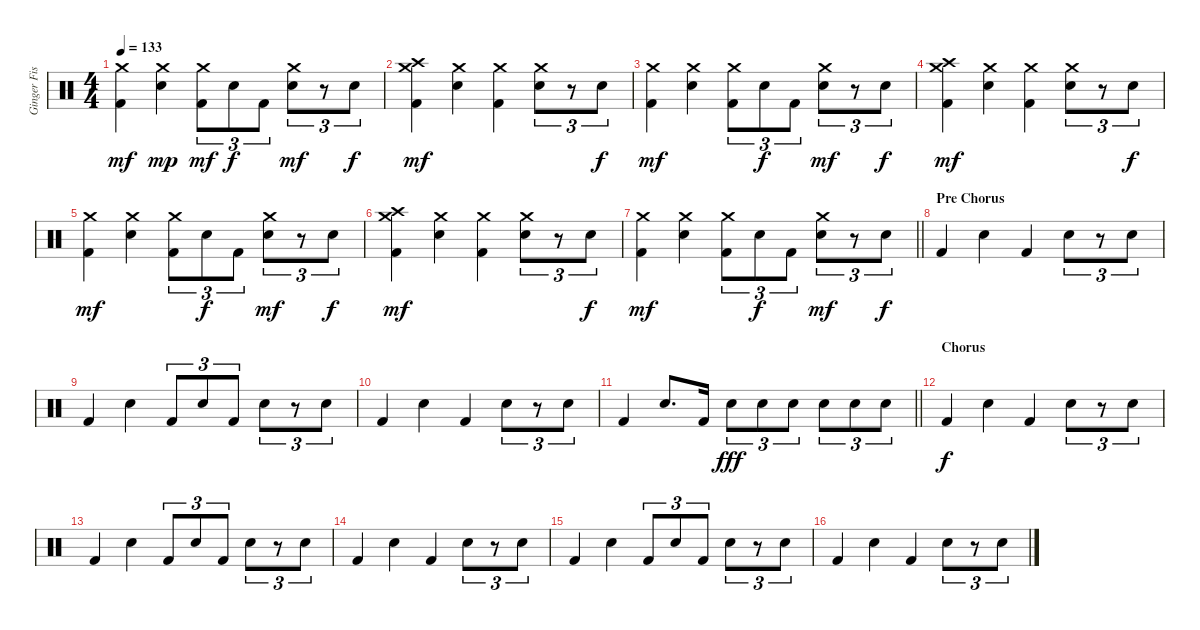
\track ("Ginger Fish (Drums)" "Ginger Fis") {instrument percussion}
\staff {score}
\articulation defaults
\ts (4 4)
\tempo 133
\clef neutral
\ks c
("Crash medium (hit)" "Kick (hit) 2").4{dy mf} ("Crash medium (hit)" "Snare (hit) 2").4{dy mp} ("Crash medium (hit)" "Kick (hit) 2").8{tu (3 2) dy mf} "Snare (hit) 2".8{tu (3 2) dy f} "Kick (hit) 2".8{tu (3 2)} ("Crash medium (hit)" "Snare (hit) 2").8{tu (3 2) dy mf} r.8{tu (3 2)} "Snare (hit) 2".8{tu (3 2) dy f} |
("Crash high (hit)" "Crash medium (hit)" "Kick (hit) 2").4{dy mf} ("Crash medium (hit)" "Snare (hit) 2").4 ("Crash medium (hit)" "Kick (hit) 2").4 ("Crash medium (hit)" "Snare (hit) 2").8{tu (3 2)} r.8{tu (3 2)} "Snare (hit) 2".8{tu (3 2) dy f} |
("Crash medium (hit)" "Kick (hit) 2").4{dy mf} ("Crash medium (hit)" "Snare (hit) 2").4 ("Crash medium (hit)" "Kick (hit) 2").8{tu (3 2)} "Snare (hit) 2".8{tu (3 2) dy f} "Kick (hit) 2".8{tu (3 2)} ("Crash medium (hit)" "Snare (hit) 2").8{tu (3 2) dy mf} r.8{tu (3 2)} "Snare (hit) 2".8{tu (3 2) dy f} |
("Crash high (hit)" "Crash medium (hit)" "Kick (hit) 2").4{dy mf} ("Crash medium (hit)" "Snare (hit) 2").4 ("Crash medium (hit)" "Kick (hit) 2").4 ("Crash medium (hit)" "Snare (hit) 2").8{tu (3 2)} r.8{tu (3 2)} "Snare (hit) 2".8{tu (3 2) dy f} |
("Crash medium (hit)" "Kick (hit) 2").4{dy mf} ("Crash medium (hit)" "Snare (hit) 2").4 ("Crash medium (hit)" "Kick (hit) 2").8{tu (3 2)} "Snare (hit) 2".8{tu (3 2) dy f} "Kick (hit) 2".8{tu (3 2)} ("Crash medium (hit)" "Snare (hit) 2").8{tu (3 2) dy mf} r.8{tu (3 2)} "Snare (hit) 2".8{tu (3 2) dy f} |
("Crash high (hit)" "Crash medium (hit)" "Kick (hit) 2").4{dy mf} ("Crash medium (hit)" "Snare (hit) 2").4 ("Crash medium (hit)" "Kick (hit) 2").4 ("Crash medium (hit)" "Snare (hit) 2").8{tu (3 2)} r.8{tu (3 2)} "Snare (hit) 2".8{tu (3 2) dy f} |
\barLineRight lightlight
("Crash medium (hit)" "Kick (hit) 2").4{dy mf} ("Crash medium (hit)" "Snare (hit) 2").4 ("Crash medium (hit)" "Kick (hit) 2").8{tu (3 2)} "Snare (hit) 2".8{tu (3 2) dy f} "Kick (hit) 2".8{tu (3 2)} ("Crash medium (hit)" "Snare (hit) 2").8{tu (3 2) dy mf} r.8{tu (3 2)} "Snare (hit) 2".8{tu (3 2) dy f} |
\section ("" "Pre Chorus")
"Kick (hit) 2".4 "Snare (hit) 2".4 "Kick (hit) 2".4 "Snare (hit) 2".8{tu (3 2)} r.8{tu (3 2)} "Snare (hit) 2".8{tu (3 2)} |
"Kick (hit) 2".4 "Snare (hit) 2".4 "Kick (hit) 2".8{tu (3 2)} "Snare (hit) 2".8{tu (3 2)} "Kick (hit) 2".8{tu (3 2)} "Snare (hit) 2".8{tu (3 2)} r.8{tu (3 2)} "Snare (hit) 2".8{tu (3 2)} |
"Kick (hit) 2".4 "Snare (hit) 2".4 "Kick (hit) 2".4 "Snare (hit) 2".8{tu (3 2)} r.8{tu (3 2)} "Snare (hit) 2".8{tu (3 2)} |
\barLineRight lightlight "Kick (hit) 2".4 "Snare (hit) 2".8{d} "Kick (hit) 2".16 "Snare (hit) 2".8{tu (3 2) dy fff} "Snare (hit) 2".8{tu (3 2)} "Snare (hit) 2".8{tu (3 2)} "Snare (hit) 2".8{tu (3 2)} "Snare (hit) 2".8{tu (3 2)} "Snare (hit) 2".8{tu (3 2)}
|
\section ("" "Chorus")
"Kick (hit) 2".4{dy f} "Snare (hit) 2".4 "Kick (hit) 2".4 "Snare (hit) 2".8{tu (3 2)} r.8{tu (3 2)} "Snare (hit) 2".8{tu (3 2)} |
"Kick (hit) 2".4 "Snare (hit) 2".4 "Kick (hit) 2".8{tu (3 2)} "Snare (hit) 2".8{tu (3 2)} "Kick (hit) 2".8{tu (3 2)} "Snare (hit) 2".8{tu (3 2)} r.8{tu (3 2)} "Snare (hit) 2".8{tu (3 2)} |
"Kick (hit) 2".4 "Snare (hit) 2".4 "Kick (hit) 2".4 "Snare (hit) 2".8{tu (3 2)} r.8{tu (3 2)} "Snare (hit) 2".8{tu (3 2)} |
"Kick (hit) 2".4 "Snare (hit) 2".4 "Kick (hit) 2".8{tu (3 2)} "Snare (hit) 2".8{tu (3 2)} "Kick (hit) 2".8{tu (3 2)} "Snare (hit) 2".8{tu (3 2)} r.8{tu (3 2)} "Snare (hit) 2".8{tu (3 2)} |
"Kick (hit) 2".4 "Snare (hit) 2".4 "Kick (hit) 2".4 "Snare (hit) 2".8{tu (3 2)} r.8{tu (3 2)} "Snare (hit) 2".8{tu (3 2)}
